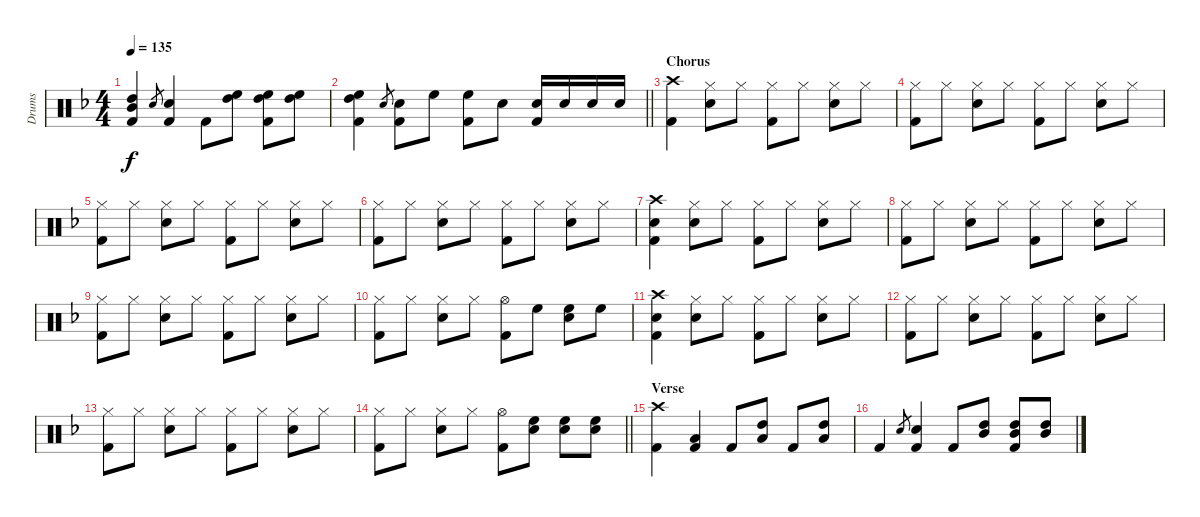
\track ("Drums" "Drums") {instrument percussion}
\staff {score}
\articulation defaults
\ts (4 4)
\tempo 135
\clef neutral
\ks f
("High Tom (hit)" "Mid Tom (hit)" "Kick (hit) 2").4{dy f} "Snare (hit) 2".8{gr} ("Snare (hit) 2" "Kick (hit) 2").4 "Kick (hit) 2".8 ("High Floor Tom (hit)" "High Tom (hit)").8 ("High Floor Tom (hit)" "High Tom (hit)" "Kick (hit) 2").8 ("High Floor Tom (hit)" "High Tom (hit)").8 |
\barLineRight lightlight
("High Floor Tom (hit)" "High Tom (hit)" "Kick (hit) 2").4 "Snare (hit) 2".8{gr} ("Snare (hit) 2" "Kick (hit) 2").8 "High Floor Tom (hit)".8 ("High Floor Tom (hit)" "Kick (hit) 2").8 "Snare (hit) 2".8 ("Snare (hit) 2" "Kick (hit) 2").16 "Snare (hit) 2".16 "Snare (hit) 2".16 "Snare (hit) 2".16 |
\section ("" "Chorus")
("Crash high (hit)" "Kick (hit) 2").4 ("Hi-Hat (closed)" "Snare (hit) 2").8 "Hi-Hat (closed)".8 ("Hi-Hat (closed)" "Kick (hit) 2").8 "Hi-Hat (closed)".8 ("Hi-Hat (closed)" "Snare (hit) 2").8 "Hi-Hat (closed)".8 |
("Hi-Hat (closed)" "Kick (hit) 2").8 "Hi-Hat (closed)".8 ("Hi-Hat (closed)" "Snare (hit) 2").8 "Hi-Hat (closed)".8 ("Hi-Hat (closed)" "Kick (hit) 2").8 "Hi-Hat (closed)".8 ("Hi-Hat (closed)" "Snare (hit) 2").8 "Hi-Hat (closed)".8 |
("Hi-Hat (closed)" "Kick (hit) 2").8 "Hi-Hat (closed)".8 ("Hi-Hat (closed)" "Snare (hit) 2").8 "Hi-Hat (closed)".8 ("Hi-Hat (closed)" "Kick (hit) 2").8 "Hi-Hat (closed)".8 ("Hi-Hat (closed)" "Snare (hit) 2").8 "Hi-Hat (closed)".8 |
("Hi-Hat (closed)" "Kick (hit) 2").8 "Hi-Hat (closed)".8 ("Hi-Hat (closed)" "Snare (hit) 2").8 "Hi-Hat (closed)".8 ("Hi-Hat (closed)" "Kick (hit) 2").8 "Hi-Hat (closed)".8 ("Hi-Hat (closed)" "Snare (hit) 2").8 "Hi-Hat (closed)".8 |
("Crash high (hit)" "Snare (hit) 2" "Kick (hit) 2").4 ("Hi-Hat (closed)" "Snare (hit) 2").8 "Hi-Hat (closed)".8 ("Hi-Hat (closed)" "Kick (hit) 2").8 "Hi-Hat (closed)".8 ("Hi-Hat (closed)" "Snare (hit) 2").8 "Hi-Hat (closed)".8 |
("Hi-Hat (closed)" "Kick (hit) 2").8 "Hi-Hat (closed)".8 ("Hi-Hat (closed)" "Snare (hit) 2").8 "Hi-Hat (closed)".8 ("Hi-Hat (closed)" "Kick (hit) 2").8 "Hi-Hat (closed)".8 ("Hi-Hat (closed)" "Snare (hit) 2").8 "Hi-Hat (closed)".8 |
("Hi-Hat (closed)" "Kick (hit) 2").8 "Hi-Hat (closed)".8 ("Hi-Hat (closed)" "Snare (hit) 2").8 "Hi-Hat (closed)".8 ("Hi-Hat (closed)" "Kick (hit) 2").8 "Hi-Hat (closed)".8 ("Hi-Hat (closed)" "Snare (hit) 2").8 "Hi-Hat (closed)".8 |
("Hi-Hat (closed)" "Kick (hit) 2").8 "Hi-Hat (closed)".8 ("Hi-Hat (closed)" "Snare (hit) 2").8 "Hi-Hat (closed)".8 ("Hi-Hat (open)" "Kick (hit) 2").8 "High Floor Tom (hit)".8 ("High Floor Tom (hit)" "Snare (hit) 2").8 "High Floor Tom (hit)".8 |
("Crash high (hit)" "Snare (hit) 2" "Kick (hit) 2").4 ("Hi-Hat (closed)" "Snare (hit) 2").8 "Hi-Hat (closed)".8 ("Hi-Hat (closed)" "Kick (hit) 2").8 "Hi-Hat (closed)".8 ("Hi-Hat (closed)" "Snare (hit) 2").8 "Hi-Hat (closed)".8 |
("Hi-Hat (closed)" "Kick (hit) 2").8 "Hi-Hat (closed)".8 ("Hi-Hat (closed)" "Snare (hit) 2").8 "Hi-Hat (closed)".8 ("Hi-Hat (closed)" "Kick (hit) 2").8 "Hi-Hat (closed)".8 ("Hi-Hat (closed)" "Snare (hit) 2").8 "Hi-Hat (closed)".8 |
("Hi-Hat (closed)" "Kick (hit) 2").8 "Hi-Hat (closed)".8 ("Hi-Hat (closed)" "Snare (hit) 2").8 "Hi-Hat (closed)".8 ("Hi-Hat (closed)" "Kick (hit) 2").8 "Hi-Hat (closed)".8 ("Hi-Hat (closed)" "Snare (hit) 2").8 "Hi-Hat (closed)".8 |
\barLineRight lightlight
("Hi-Hat (closed)" "Kick (hit) 2").8 "Hi-Hat (closed)".8 ("Hi-Hat (closed)" "Snare (hit) 2").8 "Hi-Hat (closed)".8 ("Hi-Hat (open)" "Kick (hit) 2").8 ("High Floor Tom (hit)" "Snare (hit) 2").8 ("High Floor Tom (hit)" "Snare (hit) 2").8 ("High Floor Tom (hit)" "Snare (hit) 2").8 |
\section ("" "Verse")
("Crash high (hit)" "Kick (hit) 2").4 ("Low Tom (hit)" "Kick (hit) 2").4 "Kick (hit) 2".8 ("High Tom (hit)" "Low Tom (hit)").8 "Kick (hit) 2".8 ("High Tom (hit)" "Low Tom (hit)").8 |
"Kick (hit) 2".4 "Snare (hit) 2".8{gr} ("Snare (hit) 2" "Kick (hit) 2").4 "Kick (hit) 2".8 ("High Tom (hit)" "Mid Tom (hit)").8 ("High Tom (hit)" "Mid Tom (hit)" "Kick (hit) 2").8 ("High Tom (hit)" "Mid Tom (hit)").8
